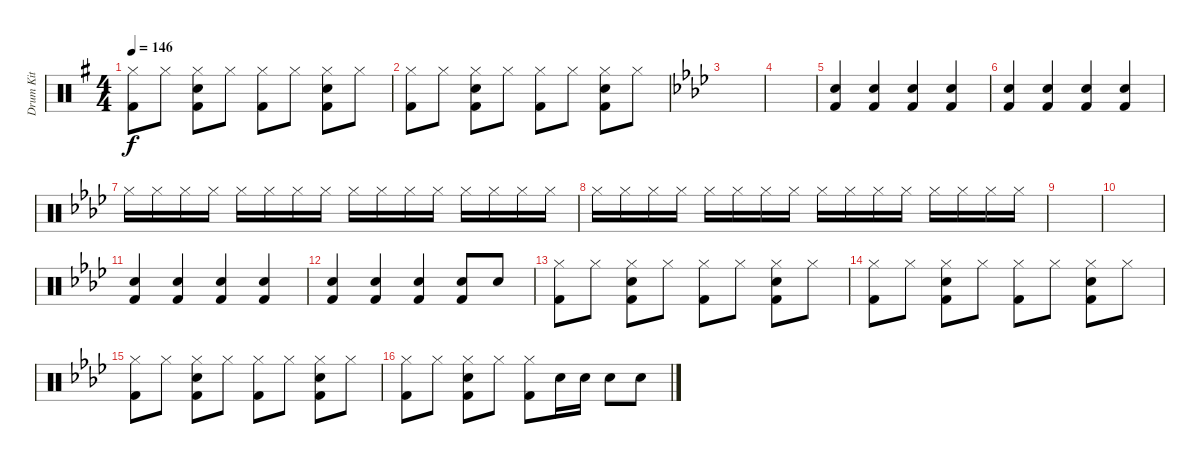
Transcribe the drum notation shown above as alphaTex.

\track ("Drum Kit" "Drum Kit") {instrument percussion}
\staff {score}
\articulation defaults
\ts (4 4)
\tempo 146
\clef neutral
\ks g
("Hi-Hat (closed)" "Kick (hit) 2").8{dy f} "Hi-Hat (closed)".8 ("Hi-Hat (closed)" "Electric Snare (hit)" "Kick (hit) 2").8 "Hi-Hat (closed)".8 ("Hi-Hat (closed)" "Kick (hit) 2").8 "Hi-Hat (closed)".8 ("Hi-Hat (closed)" "Electric Snare (hit)" "Kick (hit) 2").8 "Hi-Hat (closed)".8 |
("Hi-Hat (closed)" "Kick (hit) 2").8 "Hi-Hat (closed)".8 ("Hi-Hat (closed)" "Electric Snare (hit)" "Kick (hit) 2").8 "Hi-Hat (closed)".8 ("Hi-Hat (closed)" "Kick (hit) 2").8 "Hi-Hat (closed)".8 ("Hi-Hat (closed)" "Electric Snare (hit)" "Kick (hit) 2").8 "Hi-Hat (closed)".8 |
\ks ab
|
|
("Hand Clap (hit)" "Kick (hit) 2").4 ("Hand Clap (hit)" "Kick (hit) 2").4 ("Hand Clap (hit)" "Kick (hit) 2").4 ("Hand Clap (hit)" "Kick (hit) 2").4 |
("Hand Clap (hit)" "Kick (hit) 2").4 ("Hand Clap (hit)" "Kick (hit) 2").4 ("Hand Clap (hit)" "Kick (hit) 2").4 ("Hand Clap (hit)" "Kick (hit) 2").4 |
"Hi-Hat (closed)".16 "Hi-Hat (closed)".16 "Hi-Hat (closed)".16 "Hi-Hat (closed)".16 "Hi-Hat (closed)".16 "Hi-Hat (closed)".16 "Hi-Hat (closed)".16 "Hi-Hat (closed)".16 "Hi-Hat (closed)".16 "Hi-Hat (closed)".16 "Hi-Hat (closed)".16 "Hi-Hat (closed)".16 "Hi-Hat (closed)".16 "Hi-Hat (closed)".16 "Hi-Hat (closed)".16 "Hi-Hat (closed)".16 |
"Hi-Hat (closed)".16 "Hi-Hat (closed)".16 "Hi-Hat (closed)".16 "Hi-Hat (closed)".16 "Hi-Hat (closed)".16 "Hi-Hat (closed)".16 "Hi-Hat (closed)".16 "Hi-Hat (closed)".16 "Hi-Hat (closed)".16 "Hi-Hat (closed)".16 "Hi-Hat (closed)".16 "Hi-Hat (closed)".16 "Hi-Hat (closed)".16 "Hi-Hat (closed)".16 "Hi-Hat (closed)".16 "Hi-Hat (closed)".16 |
|
|
("Hand Clap (hit)" "Kick (hit) 2").4 ("Hand Clap (hit)" "Kick (hit) 2").4 ("Hand Clap (hit)" "Kick (hit) 2").4 ("Hand Clap (hit)" "Kick (hit) 2").4 |
("Hand Clap (hit)" "Kick (hit) 2").4 ("Hand Clap (hit)" "Kick (hit) 2").4 ("Hand Clap (hit)" "Kick (hit) 2").4 ("Hand Clap (hit)" "Kick (hit) 2").8 "Electric Snare (hit)".8 |
("Hi-Hat (closed)" "Kick (hit) 2").8 "Hi-Hat (closed)".8 ("Hi-Hat (closed)" "Electric Snare (hit)" "Kick (hit) 2").8 "Hi-Hat (closed)".8 ("Hi-Hat (closed)" "Kick (hit) 2").8 "Hi-Hat (closed)".8 ("Hi-Hat (closed)" "Electric Snare (hit)" "Kick (hit) 2").8 "Hi-Hat (closed)".8 |
("Hi-Hat (closed)" "Kick (hit) 2").8 "Hi-Hat (closed)".8 ("Hi-Hat (closed)" "Electric Snare (hit)" "Kick (hit) 2").8 "Hi-Hat (closed)".8 ("Hi-Hat (closed)" "Kick (hit) 2").8 "Hi-Hat (closed)".8 ("Hi-Hat (closed)" "Electric Snare (hit)" "Kick (hit) 2").8 "Hi-Hat (closed)".8 |
("Hi-Hat (closed)" "Kick (hit) 2").8 "Hi-Hat (closed)".8 ("Hi-Hat (closed)" "Electric Snare (hit)" "Kick (hit) 2").8 "Hi-Hat (closed)".8 ("Hi-Hat (closed)" "Kick (hit) 2").8 "Hi-Hat (closed)".8 ("Hi-Hat (closed)" "Electric Snare (hit)" "Kick (hit) 2").8 "Hi-Hat (closed)".8 |
("Hi-Hat (closed)" "Kick (hit) 2").8 "Hi-Hat (closed)".8 ("Hi-Hat (closed)" "Electric Snare (hit)" "Kick (hit) 2").8 "Hi-Hat (closed)".8 ("Hi-Hat (closed)" "Kick (hit) 2").8 "Electric Snare (hit)".16 "Electric Snare (hit)".16 "Electric Snare (hit)".8 "Electric Snare (hit)".8
